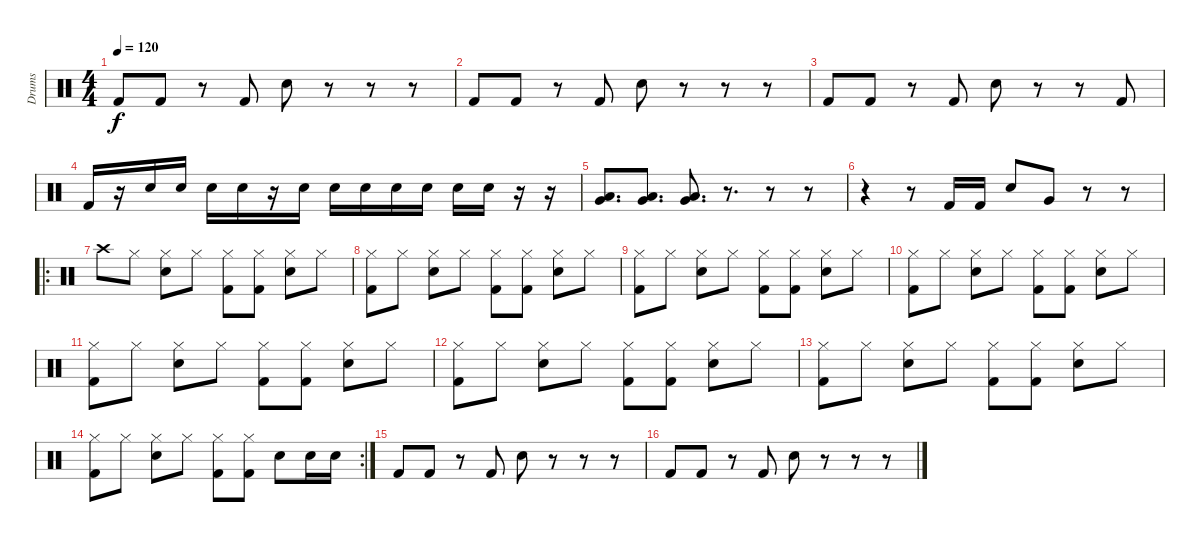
\track ("Drums" "Drums") {instrument percussion}
\staff {score}
\articulation defaults
\ts (4 4)
\tempo 120
\clef neutral
\ks c "Kick (hit) 2".8{dy f} "Kick (hit) 2".8
r.8 "Kick (hit) 2".8 "Electric Snare (hit)".8 r.8 r.8 r.8 |
"Kick (hit) 2".8 "Kick (hit) 2".8 r.8 "Kick (hit) 2".8 "Electric Snare (hit)".8 r.8 r.8 r.8 |
"Kick (hit) 2".8 "Kick (hit) 2".8 r.8 "Kick (hit) 2".8 "Electric Snare (hit)".8 r.8 r.8 "Kick (hit) 2".8 |
"Kick (hit) 2".16 r.16 "Electric Snare (hit)".16 "Electric Snare (hit)".16 "Electric Snare (hit)".16 "Electric Snare (hit)".16 r.16 "Electric Snare (hit)".16 "Electric Snare (hit)".16 "Electric Snare (hit)".16 "Electric Snare (hit)".16 "Electric Snare (hit)".16 "Electric Snare (hit)".16 "Electric Snare (hit)".16 r.16 r.16 |
("Very Low Tom (hit)" "Low Floor Tom (hit)").8{d} ("Very Low Tom (hit)" "Low Floor Tom (hit)").8{d} ("Very Low Tom (hit)" "Low Floor Tom (hit)").8{d} r.8{d} r.8 r.8 |
r.4 r.8 "Kick (hit) 2".16 "Kick (hit) 2".16 "Electric Snare (hit)".8 "Very Low Tom (hit)".8 r.8 r.8 |
\ro "Crash high (hit)".8 "Hi-Hat (closed)".8
("Electric Snare (hit)" "Hi-Hat (closed)").8 "Hi-Hat (closed)".8 ("Kick (hit) 2" "Hi-Hat (closed)").8 ("Kick (hit) 2" "Hi-Hat (closed)").8 ("Electric Snare (hit)" "Hi-Hat (closed)").8 "Hi-Hat (closed)".8 |
("Kick (hit) 2" "Hi-Hat (closed)").8 "Hi-Hat (closed)".8 ("Electric Snare (hit)" "Hi-Hat (closed)").8 "Hi-Hat (closed)".8 ("Kick (hit) 2" "Hi-Hat (closed)").8 ("Kick (hit) 2" "Hi-Hat (closed)").8 ("Electric Snare (hit)" "Hi-Hat (closed)").8 "Hi-Hat (closed)".8 |
("Kick (hit) 2" "Hi-Hat (closed)").8 "Hi-Hat (closed)".8 ("Electric Snare (hit)" "Hi-Hat (closed)").8 "Hi-Hat (closed)".8 ("Kick (hit) 2" "Hi-Hat (closed)").8 ("Kick (hit) 2" "Hi-Hat (closed)").8 ("Electric Snare (hit)" "Hi-Hat (closed)").8 "Hi-Hat (closed)".8 |
("Kick (hit) 2" "Hi-Hat (closed)").8 "Hi-Hat (closed)".8 ("Electric Snare (hit)" "Hi-Hat (closed)").8 "Hi-Hat (closed)".8 ("Kick (hit) 2" "Hi-Hat (closed)").8 ("Kick (hit) 2" "Hi-Hat (closed)").8 ("Electric Snare (hit)" "Hi-Hat (closed)").8 "Hi-Hat (closed)".8 |
("Kick (hit) 2" "Hi-Hat (closed)").8 "Hi-Hat (closed)".8 ("Electric Snare (hit)" "Hi-Hat (closed)").8 "Hi-Hat (closed)".8 ("Kick (hit) 2" "Hi-Hat (closed)").8 ("Kick (hit) 2" "Hi-Hat (closed)").8 ("Electric Snare (hit)" "Hi-Hat (closed)").8 "Hi-Hat (closed)".8 |
("Kick (hit) 2" "Hi-Hat (closed)").8 "Hi-Hat (closed)".8 ("Electric Snare (hit)" "Hi-Hat (closed)").8 "Hi-Hat (closed)".8 ("Kick (hit) 2" "Hi-Hat (closed)").8 ("Kick (hit) 2" "Hi-Hat (closed)").8 ("Electric Snare (hit)" "Hi-Hat (closed)").8 "Hi-Hat (closed)".8 |
("Kick (hit) 2" "Hi-Hat (closed)").8 "Hi-Hat (closed)".8 ("Electric Snare (hit)" "Hi-Hat (closed)").8 "Hi-Hat (closed)".8 ("Kick (hit) 2" "Hi-Hat (closed)").8 ("Kick (hit) 2" "Hi-Hat (closed)").8 ("Electric Snare (hit)" "Hi-Hat (closed)").8 "Hi-Hat (closed)".8 |
\rc 2
("Kick (hit) 2" "Hi-Hat (closed)").8 "Hi-Hat (closed)".8 ("Electric Snare (hit)" "Hi-Hat (closed)").8 "Hi-Hat (closed)".8 ("Kick (hit) 2" "Hi-Hat (closed)").8 ("Kick (hit) 2" "Hi-Hat (closed)").8 "Electric Snare (hit)".8 "Electric Snare (hit)".16 "Electric Snare (hit)".16 |
"Kick (hit) 2".8 "Kick (hit) 2".8 r.8 "Kick (hit) 2".8 "Electric Snare (hit)".8 r.8 r.8 r.8 |
"Kick (hit) 2".8 "Kick (hit) 2".8 r.8 "Kick (hit) 2".8 "Electric Snare (hit)".8 r.8 r.8 r.8
